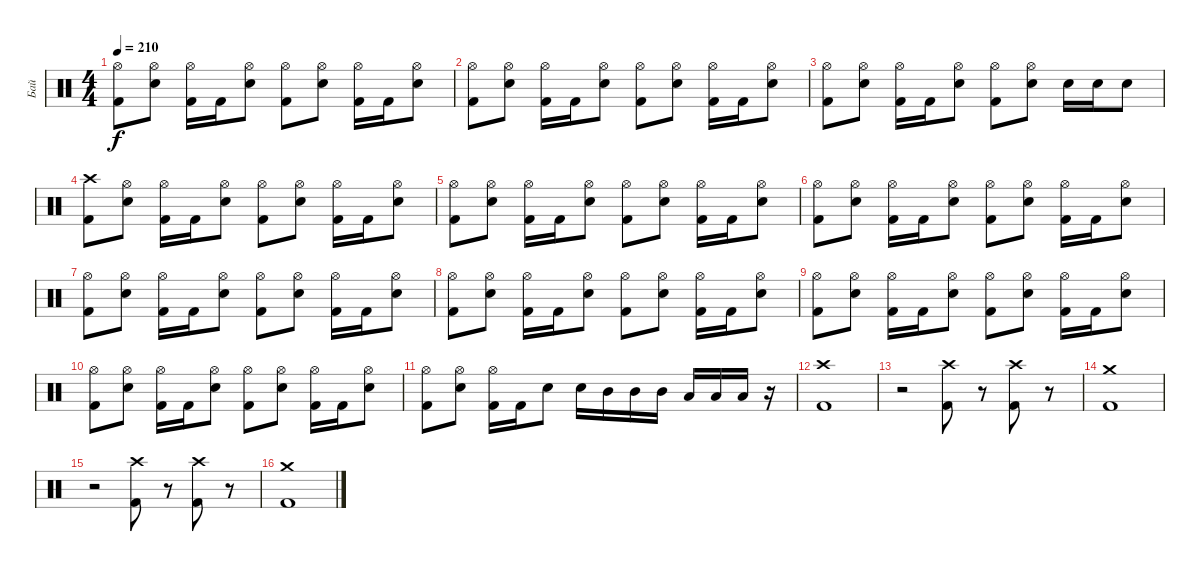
\track ("Бай" "Бай") {instrument percussion}
\staff {score}
\articulation defaults
\ts (4 4)
\tempo 210
\clef neutral
\ks c
("Hi-Hat (open)" "Kick (hit) 2").8{dy f} ("Hi-Hat (open)" "Electric Snare (hit)").8 ("Hi-Hat (open)" "Kick (hit) 2").16 "Kick (hit) 2".16 ("Hi-Hat (open)" "Electric Snare (hit)").8 ("Hi-Hat (open)" "Kick (hit) 2").8 ("Hi-Hat (open)" "Electric Snare (hit)").8 ("Hi-Hat (open)" "Kick (hit) 2").16 "Kick (hit) 2".16 ("Hi-Hat (open)" "Electric Snare (hit)").8 |
("Hi-Hat (open)" "Kick (hit) 2").8 ("Hi-Hat (open)" "Electric Snare (hit)").8 ("Hi-Hat (open)" "Kick (hit) 2").16 "Kick (hit) 2".16 ("Hi-Hat (open)" "Electric Snare (hit)").8 ("Hi-Hat (open)" "Kick (hit) 2").8 ("Hi-Hat (open)" "Electric Snare (hit)").8 ("Hi-Hat (open)" "Kick (hit) 2").16 "Kick (hit) 2".16 ("Hi-Hat (open)" "Electric Snare (hit)").8 |
("Hi-Hat (open)" "Kick (hit) 2").8 ("Hi-Hat (open)" "Electric Snare (hit)").8 ("Hi-Hat (open)" "Kick (hit) 2").16 "Kick (hit) 2".16 ("Hi-Hat (open)" "Electric Snare (hit)").8 ("Hi-Hat (open)" "Kick (hit) 2").8 ("Hi-Hat (open)" "Electric Snare (hit)").8 "Electric Snare (hit)".16 "Electric Snare (hit)".16 "Electric Snare (hit)".8 |
("Crash high (hit)" "Kick (hit) 2").8 ("Hi-Hat (open)" "Electric Snare (hit)").8 ("Hi-Hat (open)" "Kick (hit) 2").16 "Kick (hit) 2".16 ("Hi-Hat (open)" "Electric Snare (hit)").8 ("Hi-Hat (open)" "Kick (hit) 2").8 ("Hi-Hat (open)" "Electric Snare (hit)").8 ("Hi-Hat (open)" "Kick (hit) 2").16 "Kick (hit) 2".16 ("Hi-Hat (open)" "Electric Snare (hit)").8 |
("Hi-Hat (open)" "Kick (hit) 2").8 ("Hi-Hat (open)" "Electric Snare (hit)").8 ("Hi-Hat (open)" "Kick (hit) 2").16 "Kick (hit) 2".16 ("Hi-Hat (open)" "Electric Snare (hit)").8 ("Hi-Hat (open)" "Kick (hit) 2").8 ("Hi-Hat (open)" "Electric Snare (hit)").8 ("Hi-Hat (open)" "Kick (hit) 2").16 "Kick (hit) 2".16 ("Hi-Hat (open)" "Electric Snare (hit)").8 |
("Hi-Hat (open)" "Kick (hit) 2").8 ("Hi-Hat (open)" "Electric Snare (hit)").8 ("Hi-Hat (open)" "Kick (hit) 2").16 "Kick (hit) 2".16 ("Hi-Hat (open)" "Electric Snare (hit)").8 ("Hi-Hat (open)" "Kick (hit) 2").8 ("Hi-Hat (open)" "Electric Snare (hit)").8 ("Hi-Hat (open)" "Kick (hit) 2").16 "Kick (hit) 2".16 ("Hi-Hat (open)" "Electric Snare (hit)").8 |
("Hi-Hat (open)" "Kick (hit) 2").8 ("Hi-Hat (open)" "Electric Snare (hit)").8 ("Hi-Hat (open)" "Kick (hit) 2").16 "Kick (hit) 2".16 ("Hi-Hat (open)" "Electric Snare (hit)").8 ("Hi-Hat (open)" "Kick (hit) 2").8 ("Hi-Hat (open)" "Electric Snare (hit)").8 ("Hi-Hat (open)" "Kick (hit) 2").16 "Kick (hit) 2".16 ("Hi-Hat (open)" "Electric Snare (hit)").8 |
("Hi-Hat (open)" "Kick (hit) 2").8 ("Hi-Hat (open)" "Electric Snare (hit)").8 ("Hi-Hat (open)" "Kick (hit) 2").16 "Kick (hit) 2".16 ("Hi-Hat (open)" "Electric Snare (hit)").8 ("Hi-Hat (open)" "Kick (hit) 2").8 ("Hi-Hat (open)" "Electric Snare (hit)").8 ("Hi-Hat (open)" "Kick (hit) 2").16 "Kick (hit) 2".16 ("Hi-Hat (open)" "Electric Snare (hit)").8 |
("Hi-Hat (open)" "Kick (hit) 2").8 ("Hi-Hat (open)" "Electric Snare (hit)").8 ("Hi-Hat (open)" "Kick (hit) 2").16 "Kick (hit) 2".16 ("Hi-Hat (open)" "Electric Snare (hit)").8 ("Hi-Hat (open)" "Kick (hit) 2").8 ("Hi-Hat (open)" "Electric Snare (hit)").8 ("Hi-Hat (open)" "Kick (hit) 2").16 "Kick (hit) 2".16 ("Hi-Hat (open)" "Electric Snare (hit)").8 |
("Hi-Hat (open)" "Kick (hit) 2").8 ("Hi-Hat (open)" "Electric Snare (hit)").8 ("Hi-Hat (open)" "Kick (hit) 2").16 "Kick (hit) 2".16 ("Hi-Hat (open)" "Electric Snare (hit)").8 ("Hi-Hat (open)" "Kick (hit) 2").8 ("Hi-Hat (open)" "Electric Snare (hit)").8 ("Hi-Hat (open)" "Kick (hit) 2").16 "Kick (hit) 2".16 ("Hi-Hat (open)" "Electric Snare (hit)").8 |
("Hi-Hat (open)" "Kick (hit) 2").8 ("Hi-Hat (open)" "Electric Snare (hit)").8 ("Hi-Hat (open)" "Kick (hit) 2").16 "Kick (hit) 2".16 "Electric Snare (hit)".8 "Electric Snare (hit)".16 "Mid Tom (hit)".16 "Mid Tom (hit)".16 "Mid Tom (hit)".16 "Low Tom (hit)".16 "Low Tom (hit)".16 "Low Tom (hit)".16 r.16 |
("Crash high (hit)" "Kick (hit) 2").1 |
r.2 ("Crash high (hit)" "Kick (hit) 2").8 r.8 ("Crash high (hit)" "Kick (hit) 2").8 r.8 |
("Crash medium (hit)" "Kick (hit) 2").1 |
r.2 ("Crash high (hit)" "Kick (hit) 2").8 r.8 ("Crash high (hit)" "Kick (hit) 2").8 r.8 |
("Crash medium (hit)" "Kick (hit) 2").1
